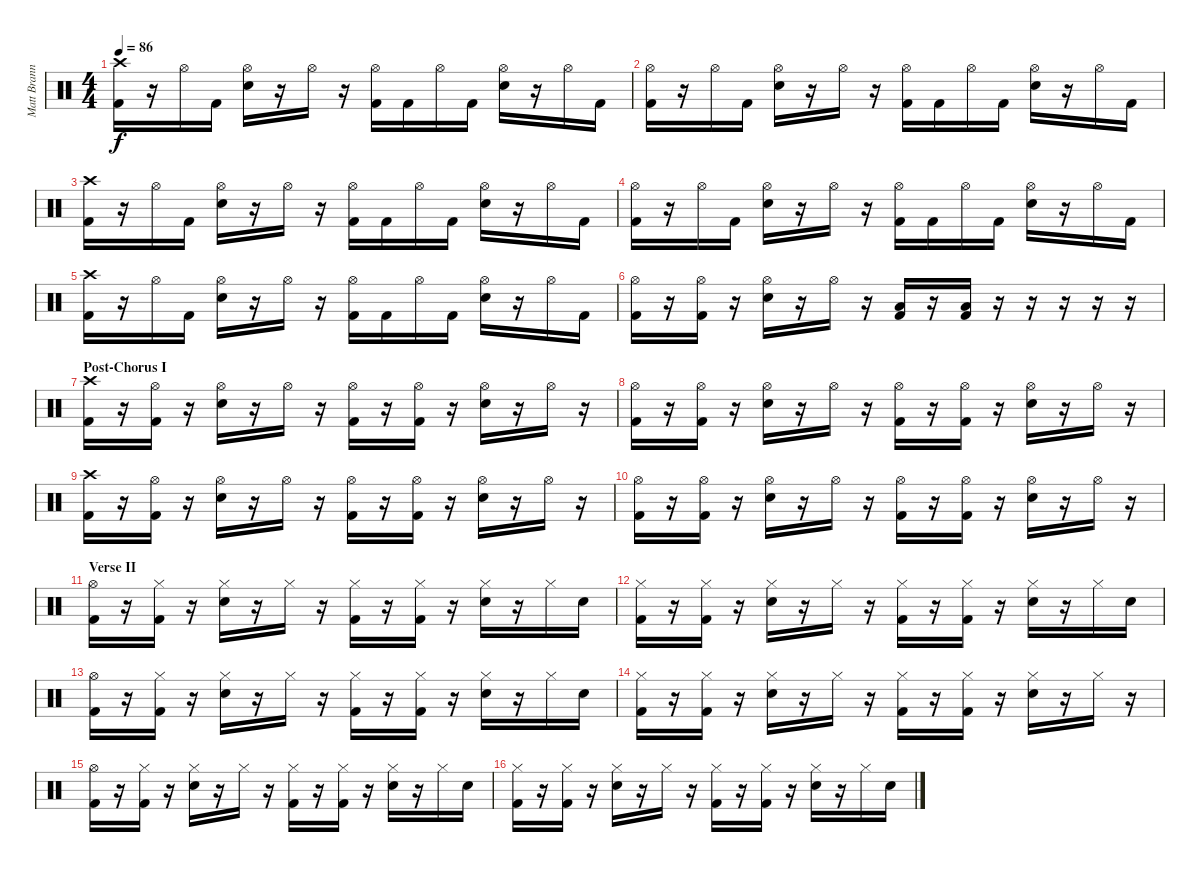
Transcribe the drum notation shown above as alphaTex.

\track ("Matt Brann - Drums" "Matt Brann") {instrument percussion}
\staff {score}
\articulation defaults
\ts (4 4)
\tempo 86
\clef neutral
\ks c
("Crash high (hit)" "Kick (hit) 2").16{dy f} r.16 "Hi-Hat (open)".16 "Kick (hit) 2".16 ("Hi-Hat (open)" "Electric Snare (hit)").16 r.16 "Hi-Hat (open)".16 r.16 ("Hi-Hat (open)" "Kick (hit) 2").16 "Kick (hit) 2".16 "Hi-Hat (open)".16 "Kick (hit) 2".16 ("Hi-Hat (open)" "Electric Snare (hit)").16 r.16 "Hi-Hat (open)".16 "Kick (hit) 2".16 |
("Hi-Hat (open)" "Kick (hit) 2").16 r.16 "Hi-Hat (open)".16 "Kick (hit) 2".16 ("Hi-Hat (open)" "Electric Snare (hit)").16 r.16 "Hi-Hat (open)".16 r.16 ("Hi-Hat (open)" "Kick (hit) 2").16 "Kick (hit) 2".16 "Hi-Hat (open)".16 "Kick (hit) 2".16 ("Hi-Hat (open)" "Electric Snare (hit)").16 r.16 "Hi-Hat (open)".16 "Kick (hit) 2".16 |
("Crash high (hit)" "Kick (hit) 2").16 r.16 "Hi-Hat (open)".16 "Kick (hit) 2".16 ("Hi-Hat (open)" "Electric Snare (hit)").16 r.16 "Hi-Hat (open)".16 r.16 ("Hi-Hat (open)" "Kick (hit) 2").16 "Kick (hit) 2".16 "Hi-Hat (open)".16 "Kick (hit) 2".16 ("Hi-Hat (open)" "Electric Snare (hit)").16 r.16 "Hi-Hat (open)".16 "Kick (hit) 2".16 |
("Hi-Hat (open)" "Kick (hit) 2").16 r.16 "Hi-Hat (open)".16 "Kick (hit) 2".16 ("Hi-Hat (open)" "Electric Snare (hit)").16 r.16 "Hi-Hat (open)".16 r.16 ("Hi-Hat (open)" "Kick (hit) 2").16 "Kick (hit) 2".16 "Hi-Hat (open)".16 "Kick (hit) 2".16 ("Hi-Hat (open)" "Electric Snare (hit)").16 r.16 "Hi-Hat (open)".16 "Kick (hit) 2".16 |
("Crash high (hit)" "Kick (hit) 2").16 r.16 "Hi-Hat (open)".16 "Kick (hit) 2".16 ("Hi-Hat (open)" "Electric Snare (hit)").16 r.16 "Hi-Hat (open)".16 r.16 ("Hi-Hat (open)" "Kick (hit) 2").16 "Kick (hit) 2".16 "Hi-Hat (open)".16 "Kick (hit) 2".16 ("Hi-Hat (open)" "Electric Snare (hit)").16 r.16 "Hi-Hat (open)".16 "Kick (hit) 2".16 |
("Hi-Hat (open)" "Kick (hit) 2").16 r.16 ("Hi-Hat (open)" "Kick (hit) 2").16 r.16 ("Hi-Hat (open)" "Electric Snare (hit)").16 r.16 "Hi-Hat (open)".16 r.16 ("Low Floor Tom (hit)" "Kick (hit) 2").16 r.16 ("Low Floor Tom (hit)" "Kick (hit) 2").16 r.16 r.16 r.16 r.16 r.16 |
\section ("" "Post-Chorus I")
("Crash high (hit)" "Kick (hit) 2").16 r.16 ("Hi-Hat (open)" "Kick (hit) 2").16 r.16 ("Hi-Hat (open)" "Electric Snare (hit)").16 r.16 "Hi-Hat (open)".16 r.16 ("Hi-Hat (open)" "Kick (hit) 2").16 r.16 ("Hi-Hat (open)" "Kick (hit) 2").16 r.16 ("Hi-Hat (open)" "Electric Snare (hit)").16 r.16 "Hi-Hat (open)".16 r.16 |
("Hi-Hat (open)" "Kick (hit) 2").16 r.16 ("Hi-Hat (open)" "Kick (hit) 2").16 r.16 ("Hi-Hat (open)" "Electric Snare (hit)").16 r.16 "Hi-Hat (open)".16 r.16 ("Hi-Hat (open)" "Kick (hit) 2").16 r.16 ("Hi-Hat (open)" "Kick (hit) 2").16 r.16 ("Hi-Hat (open)" "Electric Snare (hit)").16 r.16 "Hi-Hat (open)".16 r.16 |
("Crash high (hit)" "Kick (hit) 2").16 r.16 ("Hi-Hat (open)" "Kick (hit) 2").16 r.16 ("Hi-Hat (open)" "Electric Snare (hit)").16 r.16 "Hi-Hat (open)".16 r.16 ("Hi-Hat (open)" "Kick (hit) 2").16 r.16 ("Hi-Hat (open)" "Kick (hit) 2").16 r.16 ("Hi-Hat (open)" "Electric Snare (hit)").16 r.16 "Hi-Hat (open)".16 r.16 |
("Hi-Hat (open)" "Kick (hit) 2").16 r.16 ("Hi-Hat (open)" "Kick (hit) 2").16 r.16 ("Hi-Hat (open)" "Electric Snare (hit)").16 r.16 "Hi-Hat (open)".16 r.16 ("Hi-Hat (open)" "Kick (hit) 2").16 r.16 ("Hi-Hat (open)" "Kick (hit) 2").16 r.16 ("Hi-Hat (open)" "Electric Snare (hit)").16 r.16 "Hi-Hat (open)".16 r.16 |
\section ("" "Verse II")
("Hi-Hat (open)" "Kick (hit) 2").16 r.16 ("Hi-Hat (closed)" "Kick (hit) 2").16 r.16 ("Hi-Hat (closed)" "Electric Snare (hit)").16 r.16 "Hi-Hat (closed)".16 r.16 ("Hi-Hat (closed)" "Kick (hit) 2").16 r.16 ("Hi-Hat (closed)" "Kick (hit) 2").16 r.16 ("Hi-Hat (closed)" "Electric Snare (hit)").16 r.16 "Hi-Hat (closed)".16 "Electric Snare (hit)".16 |
("Hi-Hat (closed)" "Kick (hit) 2").16 r.16 ("Hi-Hat (closed)" "Kick (hit) 2").16 r.16 ("Hi-Hat (closed)" "Electric Snare (hit)").16 r.16 "Hi-Hat (closed)".16 r.16 ("Hi-Hat (closed)" "Kick (hit) 2").16 r.16 ("Hi-Hat (closed)" "Kick (hit) 2").16 r.16 ("Hi-Hat (closed)" "Electric Snare (hit)").16 r.16 "Hi-Hat (closed)".16 "Electric Snare (hit)".16 |
("Hi-Hat (open)" "Kick (hit) 2").16 r.16 ("Hi-Hat (closed)" "Kick (hit) 2").16 r.16 ("Hi-Hat (closed)" "Electric Snare (hit)").16 r.16 "Hi-Hat (closed)".16 r.16 ("Hi-Hat (closed)" "Kick (hit) 2").16 r.16 ("Hi-Hat (closed)" "Kick (hit) 2").16 r.16 ("Hi-Hat (closed)" "Electric Snare (hit)").16 r.16 "Hi-Hat (closed)".16 "Electric Snare (hit)".16 |
("Hi-Hat (closed)" "Kick (hit) 2").16 r.16 ("Hi-Hat (closed)" "Kick (hit) 2").16 r.16 ("Hi-Hat (closed)" "Electric Snare (hit)").16 r.16 "Hi-Hat (closed)".16 r.16 ("Hi-Hat (closed)" "Kick (hit) 2").16 r.16 ("Hi-Hat (closed)" "Kick (hit) 2").16 r.16 ("Hi-Hat (closed)" "Electric Snare (hit)").16 r.16 "Hi-Hat (closed)".16 r.16 |
("Hi-Hat (open)" "Kick (hit) 2").16 r.16 ("Hi-Hat (closed)" "Kick (hit) 2").16 r.16 ("Hi-Hat (closed)" "Electric Snare (hit)").16 r.16 "Hi-Hat (closed)".16 r.16 ("Hi-Hat (closed)" "Kick (hit) 2").16 r.16 ("Hi-Hat (closed)" "Kick (hit) 2").16 r.16 ("Hi-Hat (closed)" "Electric Snare (hit)").16 r.16 "Hi-Hat (closed)".16 "Electric Snare (hit)".16 |
("Hi-Hat (closed)" "Kick (hit) 2").16 r.16 ("Hi-Hat (closed)" "Kick (hit) 2").16 r.16 ("Hi-Hat (closed)" "Electric Snare (hit)").16 r.16 "Hi-Hat (closed)".16 r.16 ("Hi-Hat (closed)" "Kick (hit) 2").16 r.16 ("Hi-Hat (closed)" "Kick (hit) 2").16 r.16 ("Hi-Hat (closed)" "Electric Snare (hit)").16 r.16 "Hi-Hat (closed)".16 "Electric Snare (hit)".16
